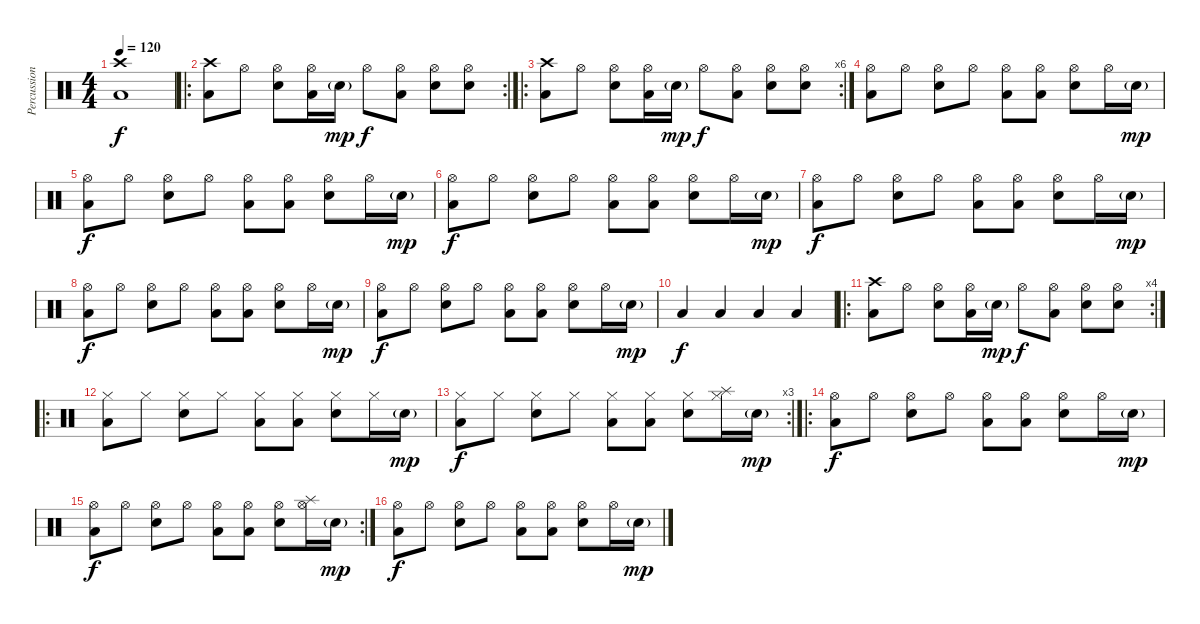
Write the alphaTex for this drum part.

\track ("Percussions" "Percussion") {instrument percussion}
\staff {score}
\articulation defaults
\ts (4 4)
\tempo 120
\clef neutral
\ks c
("Crash high (hit)" "Low Tom (hit)").1{dy f} |
\ro
\rc 2
("Crash high (hit)" "Low Tom (hit)").8 "Hi-Hat (open)".8 ("Hi-Hat (open)" "Electric Snare (hit)").8 ("Hi-Hat (open)" "Low Tom (hit)").16 "Electric Snare (hit)"{g}.16{dy mp} "Hi-Hat (open)".8{dy f} ("Hi-Hat (open)" "Low Tom (hit)").8 ("Hi-Hat (open)" "Electric Snare (hit)").8 ("Hi-Hat (open)" "Electric Snare (hit)").8 |
\ro
\rc 6
("Crash high (hit)" "Low Tom (hit)").8 "Hi-Hat (open)".8 ("Hi-Hat (open)" "Electric Snare (hit)").8 ("Hi-Hat (open)" "Low Tom (hit)").16 "Electric Snare (hit)"{g}.16{dy mp} "Hi-Hat (open)".8{dy f} ("Hi-Hat (open)" "Low Tom (hit)").8 ("Hi-Hat (open)" "Electric Snare (hit)").8 ("Hi-Hat (open)" "Electric Snare (hit)").8 |
("Hi-Hat (open)" "Low Tom (hit)").8 "Hi-Hat (open)".8 ("Hi-Hat (open)" "Electric Snare (hit)").8 "Hi-Hat (open)".8 ("Hi-Hat (open)" "Low Tom (hit)").8 ("Hi-Hat (open)" "Low Tom (hit)").8 ("Hi-Hat (open)" "Electric Snare (hit)").8 "Hi-Hat (open)".16 "Electric Snare (hit)"{g}.16{dy mp} |
("Hi-Hat (open)" "Low Tom (hit)").8{dy f} "Hi-Hat (open)".8 ("Hi-Hat (open)" "Electric Snare (hit)").8 "Hi-Hat (open)".8 ("Hi-Hat (open)" "Low Tom (hit)").8 ("Hi-Hat (open)" "Low Tom (hit)").8 ("Hi-Hat (open)" "Electric Snare (hit)").8 "Hi-Hat (open)".16 "Electric Snare (hit)"{g}.16{dy mp} |
("Hi-Hat (open)" "Low Tom (hit)").8{dy f} "Hi-Hat (open)".8 ("Hi-Hat (open)" "Electric Snare (hit)").8 "Hi-Hat (open)".8 ("Hi-Hat (open)" "Low Tom (hit)").8 ("Hi-Hat (open)" "Low Tom (hit)").8 ("Hi-Hat (open)" "Electric Snare (hit)").8 "Hi-Hat (open)".16 "Electric Snare (hit)"{g}.16{dy mp} |
("Hi-Hat (open)" "Low Tom (hit)").8{dy f} "Hi-Hat (open)".8 ("Hi-Hat (open)" "Electric Snare (hit)").8 "Hi-Hat (open)".8 ("Hi-Hat (open)" "Low Tom (hit)").8 ("Hi-Hat (open)" "Low Tom (hit)").8 ("Hi-Hat (open)" "Electric Snare (hit)").8 "Hi-Hat (open)".16 "Electric Snare (hit)"{g}.16{dy mp} |
("Hi-Hat (open)" "Low Tom (hit)").8{dy f} "Hi-Hat (open)".8 ("Hi-Hat (open)" "Electric Snare (hit)").8 "Hi-Hat (open)".8 ("Hi-Hat (open)" "Low Tom (hit)").8 ("Hi-Hat (open)" "Low Tom (hit)").8 ("Hi-Hat (open)" "Electric Snare (hit)").8 "Hi-Hat (open)".16 "Electric Snare (hit)"{g}.16{dy mp} |
("Hi-Hat (open)" "Low Tom (hit)").8{dy f} "Hi-Hat (open)".8 ("Hi-Hat (open)" "Electric Snare (hit)").8 "Hi-Hat (open)".8 ("Hi-Hat (open)" "Low Tom (hit)").8 ("Hi-Hat (open)" "Low Tom (hit)").8 ("Hi-Hat (open)" "Electric Snare (hit)").8 "Hi-Hat (open)".16 "Electric Snare (hit)"{g}.16{dy mp} |
"Low Tom (hit)".4{dy f} "Low Tom (hit)".4 "Low Tom (hit)".4 "Low Tom (hit)".4 |
\ro
\rc 4
("Crash high (hit)" "Low Tom (hit)").8 "Hi-Hat (open)".8 ("Hi-Hat (open)" "Electric Snare (hit)").8 ("Hi-Hat (open)" "Low Tom (hit)").16 "Electric Snare (hit)"{g}.16{dy mp} "Hi-Hat (open)".8{dy f} ("Hi-Hat (open)" "Low Tom (hit)").8 ("Hi-Hat (open)" "Electric Snare (hit)").8 ("Hi-Hat (open)" "Electric Snare (hit)").8 |
\ro
("Hi-Hat (closed)" "Low Tom (hit)").8 "Hi-Hat (closed)".8 ("Hi-Hat (closed)" "Electric Snare (hit)").8 "Hi-Hat (closed)".8 ("Hi-Hat (closed)" "Low Tom (hit)").8 ("Hi-Hat (closed)" "Low Tom (hit)").8 ("Hi-Hat (closed)" "Electric Snare (hit)").8 "Hi-Hat (closed)".16 "Electric Snare (hit)"{g}.16{dy mp} |
\rc 3
("Hi-Hat (closed)" "Low Tom (hit)").8{dy f} "Hi-Hat (closed)".8 ("Hi-Hat (closed)" "Electric Snare (hit)").8 "Hi-Hat (closed)".8 ("Hi-Hat (closed)" "Low Tom (hit)").8 ("Hi-Hat (closed)" "Low Tom (hit)").8 ("Hi-Hat (closed)" "Electric Snare (hit)").8 ("Splash (hit)" "Hi-Hat (closed)").16 "Electric Snare (hit)"{g}.16{dy mp} |
\ro
("Hi-Hat (open)" "Low Tom (hit)").8{dy f} "Hi-Hat (open)".8 ("Hi-Hat (open)" "Electric Snare (hit)").8 "Hi-Hat (open)".8 ("Hi-Hat (open)" "Low Tom (hit)").8 ("Hi-Hat (open)" "Low Tom (hit)").8 ("Hi-Hat (open)" "Electric Snare (hit)").8 "Hi-Hat (open)".16 "Electric Snare (hit)"{g}.16{dy mp} |
\rc 2
("Hi-Hat (open)" "Low Tom (hit)").8{dy f} "Hi-Hat (open)".8 ("Hi-Hat (open)" "Electric Snare (hit)").8 "Hi-Hat (open)".8 ("Hi-Hat (open)" "Low Tom (hit)").8 ("Hi-Hat (open)" "Low Tom (hit)").8 ("Hi-Hat (open)" "Electric Snare (hit)").8 ("Splash (hit)" "Hi-Hat (open)").16 "Electric Snare (hit)"{g}.16{dy mp} |
("Hi-Hat (open)" "Low Tom (hit)").8{dy f} "Hi-Hat (open)".8 ("Hi-Hat (open)" "Electric Snare (hit)").8 "Hi-Hat (open)".8 ("Hi-Hat (open)" "Low Tom (hit)").8 ("Hi-Hat (open)" "Low Tom (hit)").8 ("Hi-Hat (open)" "Electric Snare (hit)").8 "Hi-Hat (open)".16 "Electric Snare (hit)"{g}.16{dy mp}
